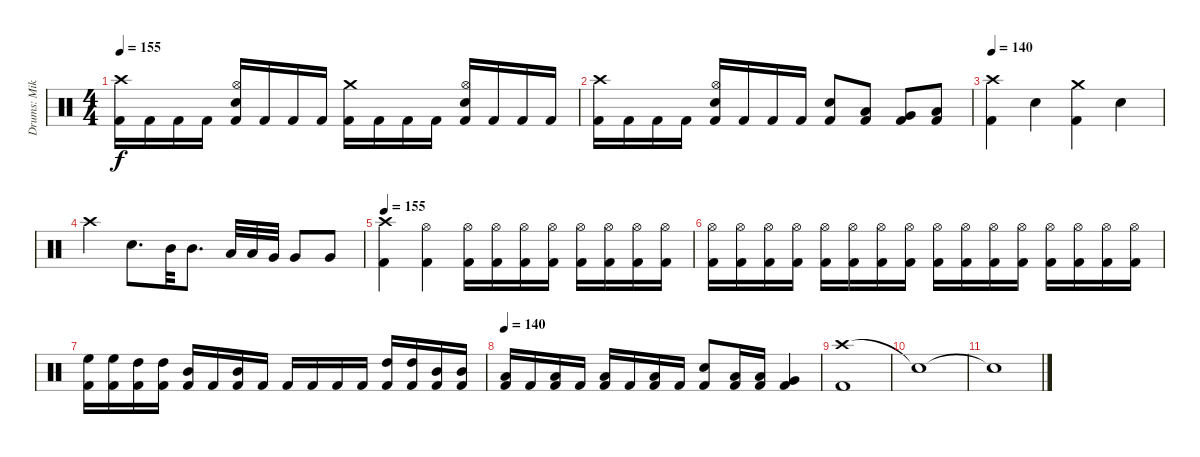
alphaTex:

\track ("Drums: Mikko Korsbäck" "Drums: Mik") {instrument percussion}
\staff {score}
\articulation defaults
\ts (4 4)
\tempo 155
\clef neutral
\ks c
("Crash high (hit)" "Kick (hit) 2").16{dy f} "Kick (hit) 2".16 "Kick (hit) 2".16 "Kick (hit) 2".16 ("Hi-Hat (open)" "Electric Snare (hit)" "Kick (hit) 2").16 "Kick (hit) 2".16 "Kick (hit) 2".16 "Kick (hit) 2".16 ("Crash medium (hit)" "Kick (hit) 2").16 "Kick (hit) 2".16 "Kick (hit) 2".16 "Kick (hit) 2".16 ("Hi-Hat (open)" "Electric Snare (hit)" "Kick (hit) 2").16 "Kick (hit) 2".16 "Kick (hit) 2".16 "Kick (hit) 2".16 |
("Crash high (hit)" "Kick (hit) 2").16 "Kick (hit) 2".16 "Kick (hit) 2".16 "Kick (hit) 2".16 ("Hi-Hat (open)" "Electric Snare (hit)" "Kick (hit) 2").16 "Kick (hit) 2".16 "Kick (hit) 2".16 "Kick (hit) 2".16 ("Electric Snare (hit)" "Kick (hit) 2").8 ("Low Tom (hit)" "Kick (hit) 2").8 ("Very Low Tom (hit)" "Kick (hit) 2").8 ("Low Tom (hit)" "Kick (hit) 2").8 |
\tempo 140
("Crash high (hit)" "Kick (hit) 2").4 "Electric Snare (hit)".4 ("Crash medium (hit)" "Kick (hit) 2").4 "Electric Snare (hit)".4 |
"Crash high (hit)".4 "Electric Snare (hit)".8{d} "Mid Tom (hit)".32 "Mid Tom (hit)".8{d} "Low Tom (hit)".32 "Low Tom (hit)".32 "Very Low Tom (hit)".32 "Very Low Tom (hit)".8 "Very Low Tom (hit)".8 |
\tempo 155
("Crash high (hit)" "Kick (hit) 2").4 ("Hi-Hat (open)" "Kick (hit) 2").4 ("Hi-Hat (open)" "Kick (hit) 2").16 ("Hi-Hat (open)" "Kick (hit) 2").16 ("Hi-Hat (open)" "Kick (hit) 2").16 ("Hi-Hat (open)" "Kick (hit) 2").16 ("Hi-Hat (open)" "Kick (hit) 2").16 ("Hi-Hat (open)" "Kick (hit) 2").16 ("Hi-Hat (open)" "Kick (hit) 2").16 ("Hi-Hat (open)" "Kick (hit) 2").16 |
("Hi-Hat (open)" "Kick (hit) 2").16 ("Hi-Hat (open)" "Kick (hit) 2").16 ("Hi-Hat (open)" "Kick (hit) 2").16 ("Hi-Hat (open)" "Kick (hit) 2").16 ("Hi-Hat (open)" "Kick (hit) 2").16 ("Hi-Hat (open)" "Kick (hit) 2").16 ("Hi-Hat (open)" "Kick (hit) 2").16 ("Hi-Hat (open)" "Kick (hit) 2").16 ("Hi-Hat (open)" "Kick (hit) 2").16 ("Hi-Hat (open)" "Kick (hit) 2").16 ("Hi-Hat (open)" "Kick (hit) 2").16 ("Hi-Hat (open)" "Kick (hit) 2").16 ("Hi-Hat (open)" "Kick (hit) 2").16 ("Hi-Hat (open)" "Kick (hit) 2").16 ("Hi-Hat (open)" "Kick (hit) 2").16 ("Hi-Hat (open)" "Kick (hit) 2").16 |
("High Floor Tom (hit)" "Kick (hit) 2").16 ("High Floor Tom (hit)" "Kick (hit) 2").16 ("High Tom (hit)" "Kick (hit) 2").16 ("High Tom (hit)" "Kick (hit) 2").16 ("Mid Tom (hit)" "Kick (hit) 2").16 "Kick (hit) 2".16 ("Mid Tom (hit)" "Kick (hit) 2").16 "Kick (hit) 2".16 "Kick (hit) 2".16 "Kick (hit) 2".16 "Kick (hit) 2".16 "Kick (hit) 2".16 ("High Tom (hit)" "Kick (hit) 2").16 ("High Tom (hit)" "Kick (hit) 2").16 ("Mid Tom (hit)" "Kick (hit) 2").16 ("Mid Tom (hit)" "Kick (hit) 2").16 |
\tempo 140
("Low Tom (hit)" "Kick (hit) 2").16 "Kick (hit) 2".16 ("Low Tom (hit)" "Kick (hit) 2").16 "Kick (hit) 2".16 ("Low Tom (hit)" "Kick (hit) 2").16 "Kick (hit) 2".16 ("Low Tom (hit)" "Kick (hit) 2").16 "Kick (hit) 2".16 ("Electric Snare (hit)" "Kick (hit) 2").8 ("Low Tom (hit)" "Kick (hit) 2").16 ("Low Tom (hit)" "Kick (hit) 2").16 ("Very Low Tom (hit)" "Kick (hit) 2").4 |
("Crash high (hit)" "Kick (hit) 2").1 |
"Snare (hit)"{t}.1 |
"Snare (hit)"{t}.1
